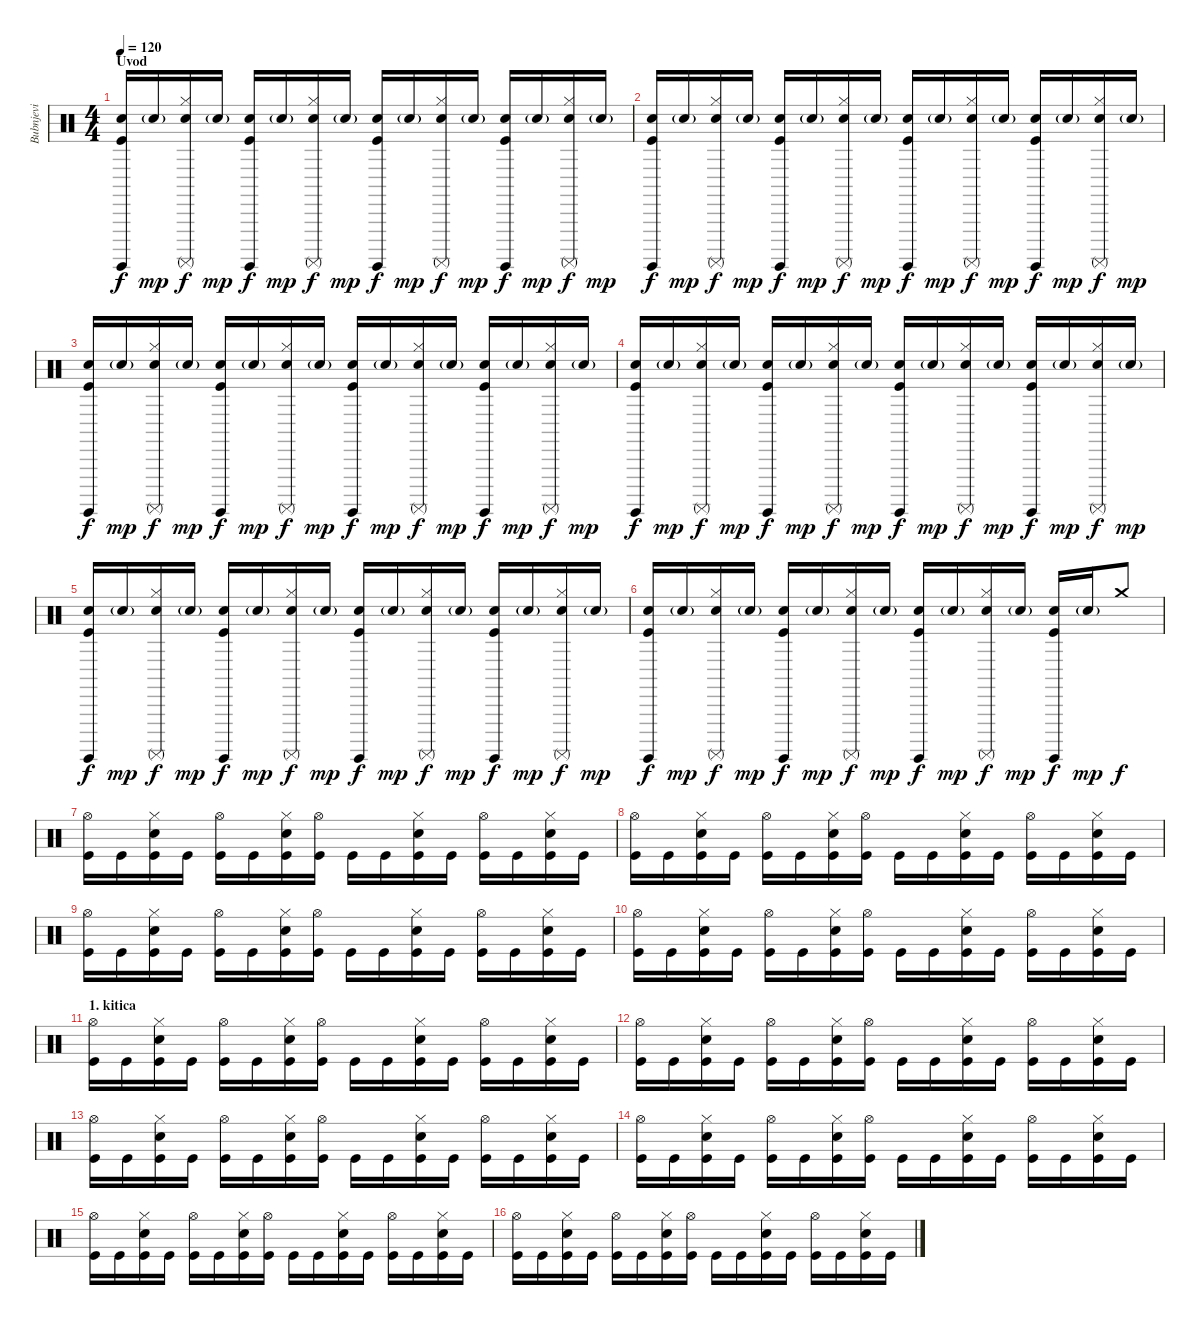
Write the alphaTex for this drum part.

\track ("Bubnjevi" "Bubnjevi") {instrument percussion}
\staff {score}
\articulation defaults
\ts (4 4)
\section ("" "Uvod")
\tempo 120
\clef neutral
\ks c
("Surdo (hit)" "Electric Snare (hit)" "Kick (hit)").16{dy f} "Electric Snare (hit)"{g}.16{dy mp} ("Surdo (mute)" "Electric Snare (hit)" "Hi-Hat (closed)").16{dy f} "Electric Snare (hit)"{g}.16{dy mp} ("Surdo (hit)" "Electric Snare (hit)" "Kick (hit)").16{dy f} "Electric Snare (hit)"{g}.16{dy mp} ("Surdo (mute)" "Electric Snare (hit)" "Hi-Hat (closed)").16{dy f} "Electric Snare (hit)"{g}.16{dy mp} ("Surdo (hit)" "Electric Snare (hit)" "Kick (hit)").16{dy f} "Electric Snare (hit)"{g}.16{dy mp} ("Surdo (mute)" "Electric Snare (hit)" "Hi-Hat (closed)").16{dy f} "Electric Snare (hit)"{g}.16{dy mp} ("Surdo (hit)" "Electric Snare (hit)" "Kick (hit)").16{dy f} "Electric Snare (hit)"{g}.16{dy mp} ("Surdo (mute)" "Electric Snare (hit)" "Hi-Hat (closed)").16{dy f} "Electric Snare (hit)"{g}.16{dy mp} |
("Surdo (hit)" "Electric Snare (hit)" "Kick (hit)").16{dy f} "Electric Snare (hit)"{g}.16{dy mp} ("Surdo (mute)" "Electric Snare (hit)" "Hi-Hat (closed)").16{dy f} "Electric Snare (hit)"{g}.16{dy mp} ("Surdo (hit)" "Electric Snare (hit)" "Kick (hit)").16{dy f} "Electric Snare (hit)"{g}.16{dy mp} ("Surdo (mute)" "Electric Snare (hit)" "Hi-Hat (closed)").16{dy f} "Electric Snare (hit)"{g}.16{dy mp} ("Surdo (hit)" "Electric Snare (hit)" "Kick (hit)").16{dy f} "Electric Snare (hit)"{g}.16{dy mp} ("Surdo (mute)" "Electric Snare (hit)" "Hi-Hat (closed)").16{dy f} "Electric Snare (hit)"{g}.16{dy mp} ("Surdo (hit)" "Electric Snare (hit)" "Kick (hit)").16{dy f} "Electric Snare (hit)"{g}.16{dy mp} ("Surdo (mute)" "Electric Snare (hit)" "Hi-Hat (closed)").16{dy f} "Electric Snare (hit)"{g}.16{dy mp} |
("Surdo (hit)" "Electric Snare (hit)" "Kick (hit)").16{dy f} "Electric Snare (hit)"{g}.16{dy mp} ("Surdo (mute)" "Electric Snare (hit)" "Hi-Hat (closed)").16{dy f} "Electric Snare (hit)"{g}.16{dy mp} ("Surdo (hit)" "Electric Snare (hit)" "Kick (hit)").16{dy f} "Electric Snare (hit)"{g}.16{dy mp} ("Surdo (mute)" "Electric Snare (hit)" "Hi-Hat (closed)").16{dy f} "Electric Snare (hit)"{g}.16{dy mp} ("Surdo (hit)" "Electric Snare (hit)" "Kick (hit)").16{dy f} "Electric Snare (hit)"{g}.16{dy mp} ("Surdo (mute)" "Electric Snare (hit)" "Hi-Hat (closed)").16{dy f} "Electric Snare (hit)"{g}.16{dy mp} ("Surdo (hit)" "Electric Snare (hit)" "Kick (hit)").16{dy f} "Electric Snare (hit)"{g}.16{dy mp} ("Surdo (mute)" "Electric Snare (hit)" "Hi-Hat (closed)").16{dy f} "Electric Snare (hit)"{g}.16{dy mp} |
("Surdo (hit)" "Electric Snare (hit)" "Kick (hit)").16{dy f} "Electric Snare (hit)"{g}.16{dy mp} ("Surdo (mute)" "Electric Snare (hit)" "Hi-Hat (closed)").16{dy f} "Electric Snare (hit)"{g}.16{dy mp} ("Surdo (hit)" "Electric Snare (hit)" "Kick (hit)").16{dy f} "Electric Snare (hit)"{g}.16{dy mp} ("Surdo (mute)" "Electric Snare (hit)" "Hi-Hat (closed)").16{dy f} "Electric Snare (hit)"{g}.16{dy mp} ("Surdo (hit)" "Electric Snare (hit)" "Kick (hit)").16{dy f} "Electric Snare (hit)"{g}.16{dy mp} ("Surdo (mute)" "Electric Snare (hit)" "Hi-Hat (closed)").16{dy f} "Electric Snare (hit)"{g}.16{dy mp} ("Surdo (hit)" "Electric Snare (hit)" "Kick (hit)").16{dy f} "Electric Snare (hit)"{g}.16{dy mp} ("Surdo (mute)" "Electric Snare (hit)" "Hi-Hat (closed)").16{dy f} "Electric Snare (hit)"{g}.16{dy mp} |
("Surdo (hit)" "Electric Snare (hit)" "Kick (hit)").16{dy f} "Electric Snare (hit)"{g}.16{dy mp} ("Surdo (mute)" "Electric Snare (hit)" "Hi-Hat (closed)").16{dy f} "Electric Snare (hit)"{g}.16{dy mp} ("Surdo (hit)" "Electric Snare (hit)" "Kick (hit)").16{dy f} "Electric Snare (hit)"{g}.16{dy mp} ("Surdo (mute)" "Electric Snare (hit)" "Hi-Hat (closed)").16{dy f} "Electric Snare (hit)"{g}.16{dy mp} ("Surdo (hit)" "Electric Snare (hit)" "Kick (hit)").16{dy f} "Electric Snare (hit)"{g}.16{dy mp} ("Surdo (mute)" "Electric Snare (hit)" "Hi-Hat (closed)").16{dy f} "Electric Snare (hit)"{g}.16{dy mp} ("Surdo (hit)" "Electric Snare (hit)" "Kick (hit)").16{dy f} "Electric Snare (hit)"{g}.16{dy mp} ("Surdo (mute)" "Electric Snare (hit)" "Hi-Hat (closed)").16{dy f} "Electric Snare (hit)"{g}.16{dy mp} |
("Surdo (hit)" "Electric Snare (hit)" "Kick (hit)").16{dy f} "Electric Snare (hit)"{g}.16{dy mp} ("Surdo (mute)" "Electric Snare (hit)" "Hi-Hat (closed)").16{dy f} "Electric Snare (hit)"{g}.16{dy mp} ("Surdo (hit)" "Electric Snare (hit)" "Kick (hit)").16{dy f} "Electric Snare (hit)"{g}.16{dy mp} ("Surdo (mute)" "Electric Snare (hit)" "Hi-Hat (closed)").16{dy f} "Electric Snare (hit)"{g}.16{dy mp} ("Surdo (hit)" "Electric Snare (hit)" "Kick (hit)").16{dy f} "Electric Snare (hit)"{g}.16{dy mp} ("Surdo (mute)" "Electric Snare (hit)" "Hi-Hat (closed)").16{dy f} "Electric Snare (hit)"{g}.16{dy mp} ("Surdo (hit)" "Electric Snare (hit)" "Kick (hit)").16{dy f} "Electric Snare (hit)"{g}.16{dy mp} "Crash medium (hit)".8{dy f} |
("Hi-Hat (open)" "Kick (hit)").16 "Kick (hit)".16 ("Electric Snare (hit)" "Hi-Hat (closed)" "Kick (hit)").16 "Kick (hit)".16 ("Hi-Hat (open)" "Kick (hit)").16 "Kick (hit)".16 ("Electric Snare (hit)" "Hi-Hat (closed)" "Kick (hit)").16 ("Hi-Hat (open)" "Kick (hit)").16 "Kick (hit)".16 "Kick (hit)".16 ("Electric Snare (hit)" "Hi-Hat (closed)" "Kick (hit)").16 "Kick (hit)".16 ("Hi-Hat (open)" "Kick (hit)").16 "Kick (hit)".16 ("Electric Snare (hit)" "Hi-Hat (closed)" "Kick (hit)").16 "Kick (hit)".16 |
("Hi-Hat (open)" "Kick (hit)").16 "Kick (hit)".16 ("Electric Snare (hit)" "Hi-Hat (closed)" "Kick (hit)").16 "Kick (hit)".16 ("Hi-Hat (open)" "Kick (hit)").16 "Kick (hit)".16 ("Electric Snare (hit)" "Hi-Hat (closed)" "Kick (hit)").16 ("Hi-Hat (open)" "Kick (hit)").16 "Kick (hit)".16 "Kick (hit)".16 ("Electric Snare (hit)" "Hi-Hat (closed)" "Kick (hit)").16 "Kick (hit)".16 ("Hi-Hat (open)" "Kick (hit)").16 "Kick (hit)".16 ("Electric Snare (hit)" "Hi-Hat (closed)" "Kick (hit)").16 "Kick (hit)".16 |
("Hi-Hat (open)" "Kick (hit)").16 "Kick (hit)".16 ("Electric Snare (hit)" "Hi-Hat (closed)" "Kick (hit)").16 "Kick (hit)".16 ("Hi-Hat (open)" "Kick (hit)").16 "Kick (hit)".16 ("Electric Snare (hit)" "Hi-Hat (closed)" "Kick (hit)").16 ("Hi-Hat (open)" "Kick (hit)").16 "Kick (hit)".16 "Kick (hit)".16 ("Electric Snare (hit)" "Hi-Hat (closed)" "Kick (hit)").16 "Kick (hit)".16 ("Hi-Hat (open)" "Kick (hit)").16 "Kick (hit)".16 ("Electric Snare (hit)" "Hi-Hat (closed)" "Kick (hit)").16 "Kick (hit)".16 |
("Hi-Hat (open)" "Kick (hit)").16 "Kick (hit)".16 ("Electric Snare (hit)" "Hi-Hat (closed)" "Kick (hit)").16 "Kick (hit)".16 ("Hi-Hat (open)" "Kick (hit)").16 "Kick (hit)".16 ("Electric Snare (hit)" "Hi-Hat (closed)" "Kick (hit)").16 ("Hi-Hat (open)" "Kick (hit)").16 "Kick (hit)".16 "Kick (hit)".16 ("Electric Snare (hit)" "Hi-Hat (closed)" "Kick (hit)").16 "Kick (hit)".16 ("Hi-Hat (open)" "Kick (hit)").16 "Kick (hit)".16 ("Electric Snare (hit)" "Hi-Hat (closed)" "Kick (hit)").16 "Kick (hit)".16 |
\section ("" "1. kitica")
("Hi-Hat (open)" "Kick (hit)").16 "Kick (hit)".16 ("Electric Snare (hit)" "Hi-Hat (closed)" "Kick (hit)").16 "Kick (hit)".16 ("Hi-Hat (open)" "Kick (hit)").16 "Kick (hit)".16 ("Electric Snare (hit)" "Hi-Hat (closed)" "Kick (hit)").16 ("Hi-Hat (open)" "Kick (hit)").16 "Kick (hit)".16 "Kick (hit)".16 ("Electric Snare (hit)" "Hi-Hat (closed)" "Kick (hit)").16 "Kick (hit)".16 ("Hi-Hat (open)" "Kick (hit)").16 "Kick (hit)".16 ("Electric Snare (hit)" "Hi-Hat (closed)" "Kick (hit)").16 "Kick (hit)".16 |
("Hi-Hat (open)" "Kick (hit)").16 "Kick (hit)".16 ("Electric Snare (hit)" "Hi-Hat (closed)" "Kick (hit)").16 "Kick (hit)".16 ("Hi-Hat (open)" "Kick (hit)").16 "Kick (hit)".16 ("Electric Snare (hit)" "Hi-Hat (closed)" "Kick (hit)").16 ("Hi-Hat (open)" "Kick (hit)").16 "Kick (hit)".16 "Kick (hit)".16 ("Electric Snare (hit)" "Hi-Hat (closed)" "Kick (hit)").16 "Kick (hit)".16 ("Hi-Hat (open)" "Kick (hit)").16 "Kick (hit)".16 ("Electric Snare (hit)" "Hi-Hat (closed)" "Kick (hit)").16 "Kick (hit)".16 |
("Hi-Hat (open)" "Kick (hit)").16 "Kick (hit)".16 ("Electric Snare (hit)" "Hi-Hat (closed)" "Kick (hit)").16 "Kick (hit)".16 ("Hi-Hat (open)" "Kick (hit)").16 "Kick (hit)".16 ("Electric Snare (hit)" "Hi-Hat (closed)" "Kick (hit)").16 ("Hi-Hat (open)" "Kick (hit)").16 "Kick (hit)".16 "Kick (hit)".16 ("Electric Snare (hit)" "Hi-Hat (closed)" "Kick (hit)").16 "Kick (hit)".16 ("Hi-Hat (open)" "Kick (hit)").16 "Kick (hit)".16 ("Electric Snare (hit)" "Hi-Hat (closed)" "Kick (hit)").16 "Kick (hit)".16 |
("Hi-Hat (open)" "Kick (hit)").16 "Kick (hit)".16 ("Electric Snare (hit)" "Hi-Hat (closed)" "Kick (hit)").16 "Kick (hit)".16 ("Hi-Hat (open)" "Kick (hit)").16 "Kick (hit)".16 ("Electric Snare (hit)" "Hi-Hat (closed)" "Kick (hit)").16 ("Hi-Hat (open)" "Kick (hit)").16 "Kick (hit)".16 "Kick (hit)".16 ("Electric Snare (hit)" "Hi-Hat (closed)" "Kick (hit)").16 "Kick (hit)".16 ("Hi-Hat (open)" "Kick (hit)").16 "Kick (hit)".16 ("Electric Snare (hit)" "Hi-Hat (closed)" "Kick (hit)").16 "Kick (hit)".16 |
("Hi-Hat (open)" "Kick (hit)").16 "Kick (hit)".16 ("Electric Snare (hit)" "Hi-Hat (closed)" "Kick (hit)").16 "Kick (hit)".16 ("Hi-Hat (open)" "Kick (hit)").16 "Kick (hit)".16 ("Electric Snare (hit)" "Hi-Hat (closed)" "Kick (hit)").16 ("Hi-Hat (open)" "Kick (hit)").16 "Kick (hit)".16 "Kick (hit)".16 ("Electric Snare (hit)" "Hi-Hat (closed)" "Kick (hit)").16 "Kick (hit)".16 ("Hi-Hat (open)" "Kick (hit)").16 "Kick (hit)".16 ("Electric Snare (hit)" "Hi-Hat (closed)" "Kick (hit)").16 "Kick (hit)".16 |
("Hi-Hat (open)" "Kick (hit)").16 "Kick (hit)".16 ("Electric Snare (hit)" "Hi-Hat (closed)" "Kick (hit)").16 "Kick (hit)".16 ("Hi-Hat (open)" "Kick (hit)").16 "Kick (hit)".16 ("Electric Snare (hit)" "Hi-Hat (closed)" "Kick (hit)").16 ("Hi-Hat (open)" "Kick (hit)").16 "Kick (hit)".16 "Kick (hit)".16 ("Electric Snare (hit)" "Hi-Hat (closed)" "Kick (hit)").16 "Kick (hit)".16 ("Hi-Hat (open)" "Kick (hit)").16 "Kick (hit)".16 ("Electric Snare (hit)" "Hi-Hat (closed)" "Kick (hit)").16 "Kick (hit)".16
